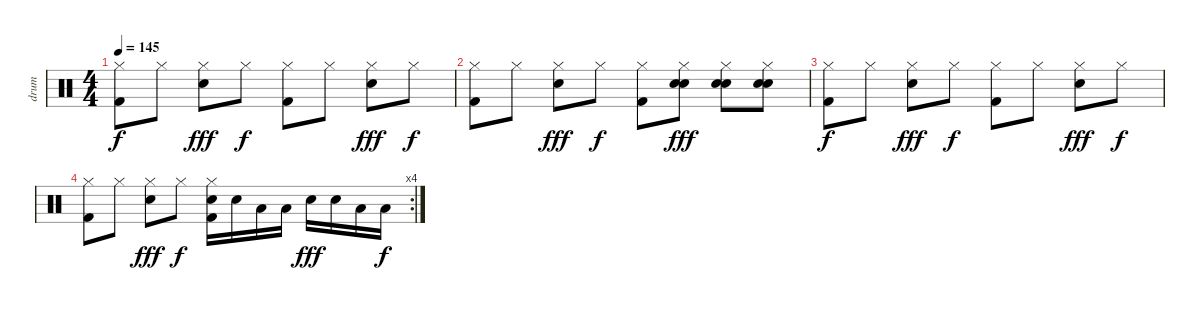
\track ("drum" "drum") {instrument percussion}
\staff {score}
\articulation defaults
\ts (4 4)
\tempo 145
\clef neutral
\ks c
("Hi-Hat (closed)" "Kick (hit) 2").8{dy f} "Hi-Hat (closed)".8 ("Hi-Hat (closed)" "Electric Snare (hit)").8{dy fff} "Hi-Hat (closed)".8{dy f} ("Hi-Hat (closed)" "Kick (hit) 2").8 "Hi-Hat (closed)".8 ("Hi-Hat (closed)" "Electric Snare (hit)").8{dy fff} "Hi-Hat (closed)".8{dy f} |
("Hi-Hat (closed)" "Kick (hit) 2").8 "Hi-Hat (closed)".8 ("Hi-Hat (closed)" "Electric Snare (hit)").8{dy fff} "Hi-Hat (closed)".8{dy f} ("Hi-Hat (closed)" "Kick (hit) 2").8 ("Hi-Hat (closed)" "Electric Snare (hit)" "Electric Snare (hit)").8{dy fff} ("Hi-Hat (closed)" "Electric Snare (hit)" "Electric Snare (hit)").8 ("Hi-Hat (closed)" "Electric Snare (hit)" "Electric Snare (hit)").8 |
("Hi-Hat (closed)" "Kick (hit) 2").8{dy f} "Hi-Hat (closed)".8 ("Hi-Hat (closed)" "Electric Snare (hit)").8{dy fff} "Hi-Hat (closed)".8{dy f} ("Hi-Hat (closed)" "Kick (hit) 2").8 "Hi-Hat (closed)".8 ("Hi-Hat (closed)" "Electric Snare (hit)").8{dy fff} "Hi-Hat (closed)".8{dy f} |
\rc 4
("Hi-Hat (closed)" "Kick (hit) 2").8 "Hi-Hat (closed)".8 ("Hi-Hat (closed)" "Electric Snare (hit)").8{dy fff} "Hi-Hat (closed)".8{dy f} ("Hi-Hat (closed)" "Electric Snare (hit)" "Kick (hit) 2").16 "Electric Snare (hit)".16 "Low Tom (hit)".16 "Low Tom (hit)".16 "Electric Snare (hit)".16{dy fff} "Electric Snare (hit)".16 "Low Tom (hit)".16 "Low Tom (hit)".16{dy f}
